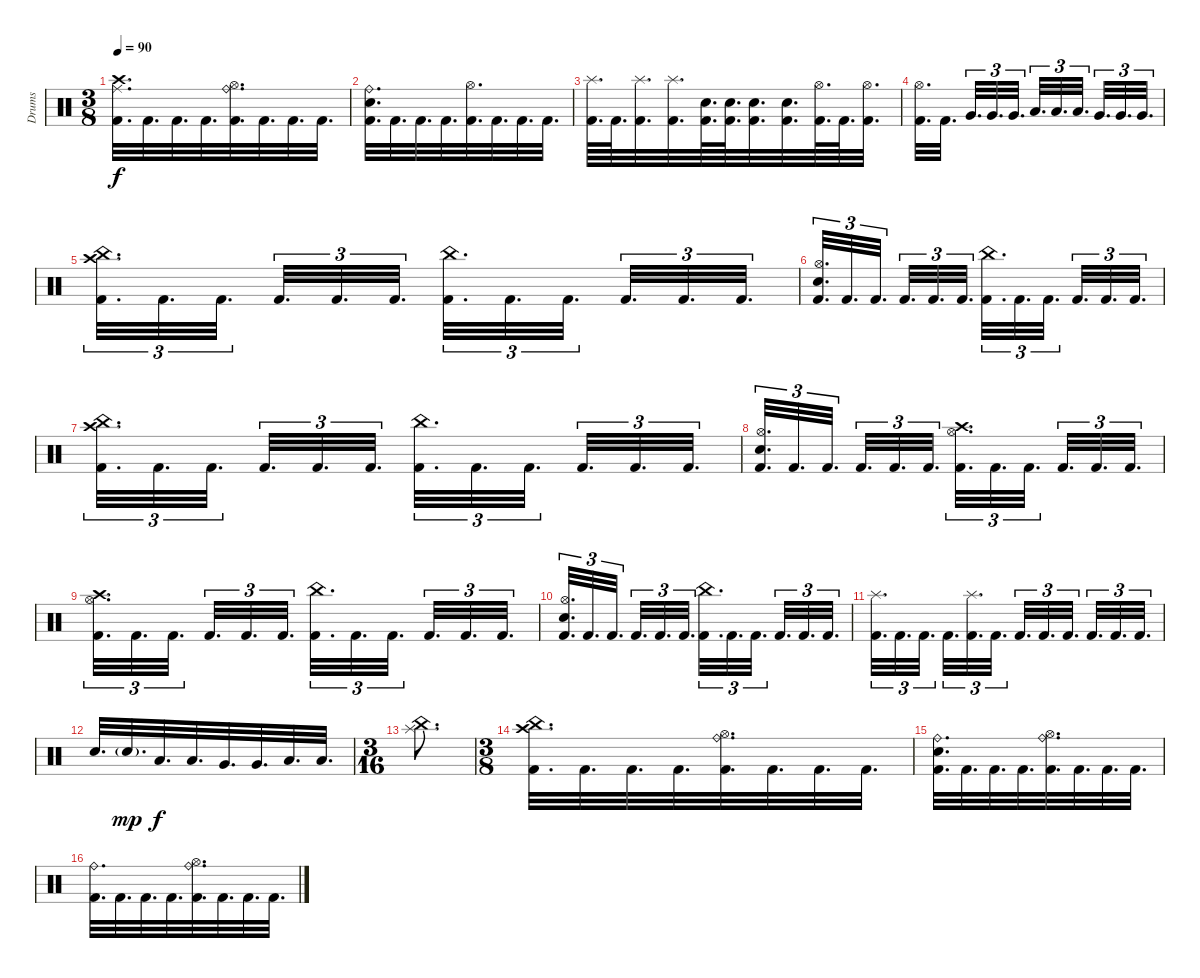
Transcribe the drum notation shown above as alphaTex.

\track ("Drums" "Drums") {instrument percussion}
\staff {score}
\articulation defaults
\ts (3 8)
\tempo 90
\clef neutral
\ks c
("Crash high (hit)" "Ride (middle)" "Kick (hit) 2").32{d dy f} "Kick (hit) 2".32{d} "Kick (hit) 2".32{d} "Kick (hit) 2".32{d} ("Ride (bell)" "Hi-Hat (open)" "Kick (hit) 2").32{d} "Kick (hit) 2".32{d} "Kick (hit) 2".32{d} "Kick (hit) 2".32{d} |
("Ride (bell)" "Electric Snare (hit)" "Kick (hit) 2").32{d} "Kick (hit) 2".32{d} "Kick (hit) 2".32{d} "Kick (hit) 2".32{d} ("Hi-Hat (open)" "Kick (hit) 2").32{d} "Kick (hit) 2".32{d} "Kick (hit) 2".32{d} "Kick (hit) 2".32{d} |
("Splash (hit)" "Kick (hit) 2").64{d} "Kick (hit) 2".64{d} ("Splash (hit)" "Kick (hit) 2").32{d} ("Splash (hit)" "Kick (hit) 2").32{d} ("Electric Snare (hit)" "Kick (hit) 2").64{d} ("Electric Snare (hit)" "Kick (hit) 2").64{d} ("Electric Snare (hit)" "Kick (hit) 2").32{d} ("Electric Snare (hit)" "Kick (hit) 2").32{d} ("Hi-Hat (open)" "Kick (hit) 2").64{d} "Kick (hit) 2".64{d} ("Hi-Hat (open)" "Kick (hit) 2").32{d} |
("Hi-Hat (open)" "Kick (hit) 2").32{d} "Kick (hit) 2".32{d beam splitsecondary} "Very Low Tom (hit)".32{d tu (3 2)} "Very Low Tom (hit)".32{d tu (3 2)} "Very Low Tom (hit)".32{d tu (3 2)} "Low Tom (hit)".32{d tu (3 2)} "Low Tom (hit)".32{d tu (3 2)} "Low Tom (hit)".32{d tu (3 2)} "Very Low Tom (hit)".32{d tu (3 2)} "Very Low Tom (hit)".32{d tu (3 2)} "Very Low Tom (hit)".32{d tu (3 2)} |
("China (hit)" "Crash high (hit)" "Kick (hit) 2").32{d tu (3 2)} "Kick (hit) 2".32{d tu (3 2)} "Kick (hit) 2".32{d tu (3 2)} "Kick (hit) 2".32{d tu (3 2)} "Kick (hit) 2".32{d tu (3 2)} "Kick (hit) 2".32{d tu (3 2)} ("China (hit)" "Kick (hit) 2").32{d tu (3 2)} "Kick (hit) 2".32{d tu (3 2)} "Kick (hit) 2".32{d tu (3 2)} "Kick (hit) 2".32{d tu (3 2)} "Kick (hit) 2".32{d tu (3 2)} "Kick (hit) 2".32{d tu (3 2)} |
("Hi-Hat (open)" "Electric Snare (hit)" "Kick (hit) 2").32{d tu (3 2)} "Kick (hit) 2".32{d tu (3 2)} "Kick (hit) 2".32{d tu (3 2)} "Kick (hit) 2".32{d tu (3 2)} "Kick (hit) 2".32{d tu (3 2)} "Kick (hit) 2".32{d tu (3 2)} ("China (hit)" "Kick (hit) 2").32{d tu (3 2)} "Kick (hit) 2".32{d tu (3 2)} "Kick (hit) 2".32{d tu (3 2)} "Kick (hit) 2".32{d tu (3 2)} "Kick (hit) 2".32{d tu (3 2)} "Kick (hit) 2".32{d tu (3 2)} |
("China (hit)" "Crash high (hit)" "Kick (hit) 2").32{d tu (3 2)} "Kick (hit) 2".32{d tu (3 2)} "Kick (hit) 2".32{d tu (3 2)} "Kick (hit) 2".32{d tu (3 2)} "Kick (hit) 2".32{d tu (3 2)} "Kick (hit) 2".32{d tu (3 2)} ("China (hit)" "Kick (hit) 2").32{d tu (3 2)} "Kick (hit) 2".32{d tu (3 2)} "Kick (hit) 2".32{d tu (3 2)} "Kick (hit) 2".32{d tu (3 2)} "Kick (hit) 2".32{d tu (3 2)} "Kick (hit) 2".32{d tu (3 2)} |
("Hi-Hat (open)" "Electric Snare (hit)" "Kick (hit) 2").32{d tu (3 2)} "Kick (hit) 2".32{d tu (3 2)} "Kick (hit) 2".32{d tu (3 2)} "Kick (hit) 2".32{d tu (3 2)} "Kick (hit) 2".32{d tu (3 2)} "Kick (hit) 2".32{d tu (3 2)} ("Hi-Hat (open)" "Crash high (hit)" "Kick (hit) 2").32{d tu (3 2)} "Kick (hit) 2".32{d tu (3 2)} "Kick (hit) 2".32{d tu (3 2)} "Kick (hit) 2".32{d tu (3 2)} "Kick (hit) 2".32{d tu (3 2)} "Kick (hit) 2".32{d tu (3 2)} |
("Crash high (hit)" "Hi-Hat (open)" "Kick (hit) 2").32{d tu (3 2)} "Kick (hit) 2".32{d tu (3 2)} "Kick (hit) 2".32{d tu (3 2)} "Kick (hit) 2".32{d tu (3 2)} "Kick (hit) 2".32{d tu (3 2)} "Kick (hit) 2".32{d tu (3 2)} ("China (hit)" "Kick (hit) 2").32{d tu (3 2)} "Kick (hit) 2".32{d tu (3 2)} "Kick (hit) 2".32{d tu (3 2)} "Kick (hit) 2".32{d tu (3 2)} "Kick (hit) 2".32{d tu (3 2)} "Kick (hit) 2".32{d tu (3 2)} |
("Hi-Hat (open)" "Electric Snare (hit)" "Kick (hit) 2").32{d tu (3 2)} "Kick (hit) 2".32{d tu (3 2)} "Kick (hit) 2".32{d tu (3 2)} "Kick (hit) 2".32{d tu (3 2)} "Kick (hit) 2".32{d tu (3 2)} "Kick (hit) 2".32{d tu (3 2)} ("China (hit)" "Kick (hit) 2").32{d tu (3 2)} "Kick (hit) 2".32{d tu (3 2)} "Kick (hit) 2".32{d tu (3 2)} "Kick (hit) 2".32{d tu (3 2)} "Kick (hit) 2".32{d tu (3 2)} "Kick (hit) 2".32{d tu (3 2)} |
("Splash (hit)" "Kick (hit) 2").32{d tu (3 2)} "Kick (hit) 2".32{d tu (3 2)} "Kick (hit) 2".32{d tu (3 2)} "Kick (hit) 2".32{d tu (3 2)} ("Splash (hit)" "Kick (hit) 2").32{d tu (3 2)} "Kick (hit) 2".32{d tu (3 2)} "Kick (hit) 2".32{d tu (3 2)} "Kick (hit) 2".32{d tu (3 2)} "Kick (hit) 2".32{d tu (3 2)} "Kick (hit) 2".32{d tu (3 2)} "Kick (hit) 2".32{d tu (3 2)} "Kick (hit) 2".32{d tu (3 2)} |
"Electric Snare (hit)".32{d} "Electric Snare (hit)"{g}.32{d dy mp} "Low Tom (hit)".32{d dy f} "Low Tom (hit)".32{d} "Very Low Tom (hit)".32{d} "Very Low Tom (hit)".32{d} "Low Floor Tom (hit)".32{d} "Low Floor Tom (hit)".32{d} |
\ts (3 16)
("China (hit)" "Splash (hit)").8{d} |
\ts (3 8)
("Crash high (hit)" "China (hit)" "Kick (hit) 2").32{d} "Kick (hit) 2".32{d} "Kick (hit) 2".32{d} "Kick (hit) 2".32{d} ("Ride (bell)" "Hi-Hat (open)" "Kick (hit) 2").32{d} "Kick (hit) 2".32{d} "Kick (hit) 2".32{d} "Kick (hit) 2".32{d} |
("Ride (bell)" "Electric Snare (hit)" "Kick (hit) 2").32{d} "Kick (hit) 2".32{d} "Kick (hit) 2".32{d} "Kick (hit) 2".32{d} ("Ride (bell)" "Hi-Hat (open)" "Kick (hit) 2").32{d} "Kick (hit) 2".32{d} "Kick (hit) 2".32{d} "Kick (hit) 2".32{d} |
("Ride (bell)" "Kick (hit) 2").32{d} "Kick (hit) 2".32{d} "Kick (hit) 2".32{d} "Kick (hit) 2".32{d} ("Ride (bell)" "Hi-Hat (open)" "Kick (hit) 2").32{d} "Kick (hit) 2".32{d} "Kick (hit) 2".32{d} "Kick (hit) 2".32{d}
